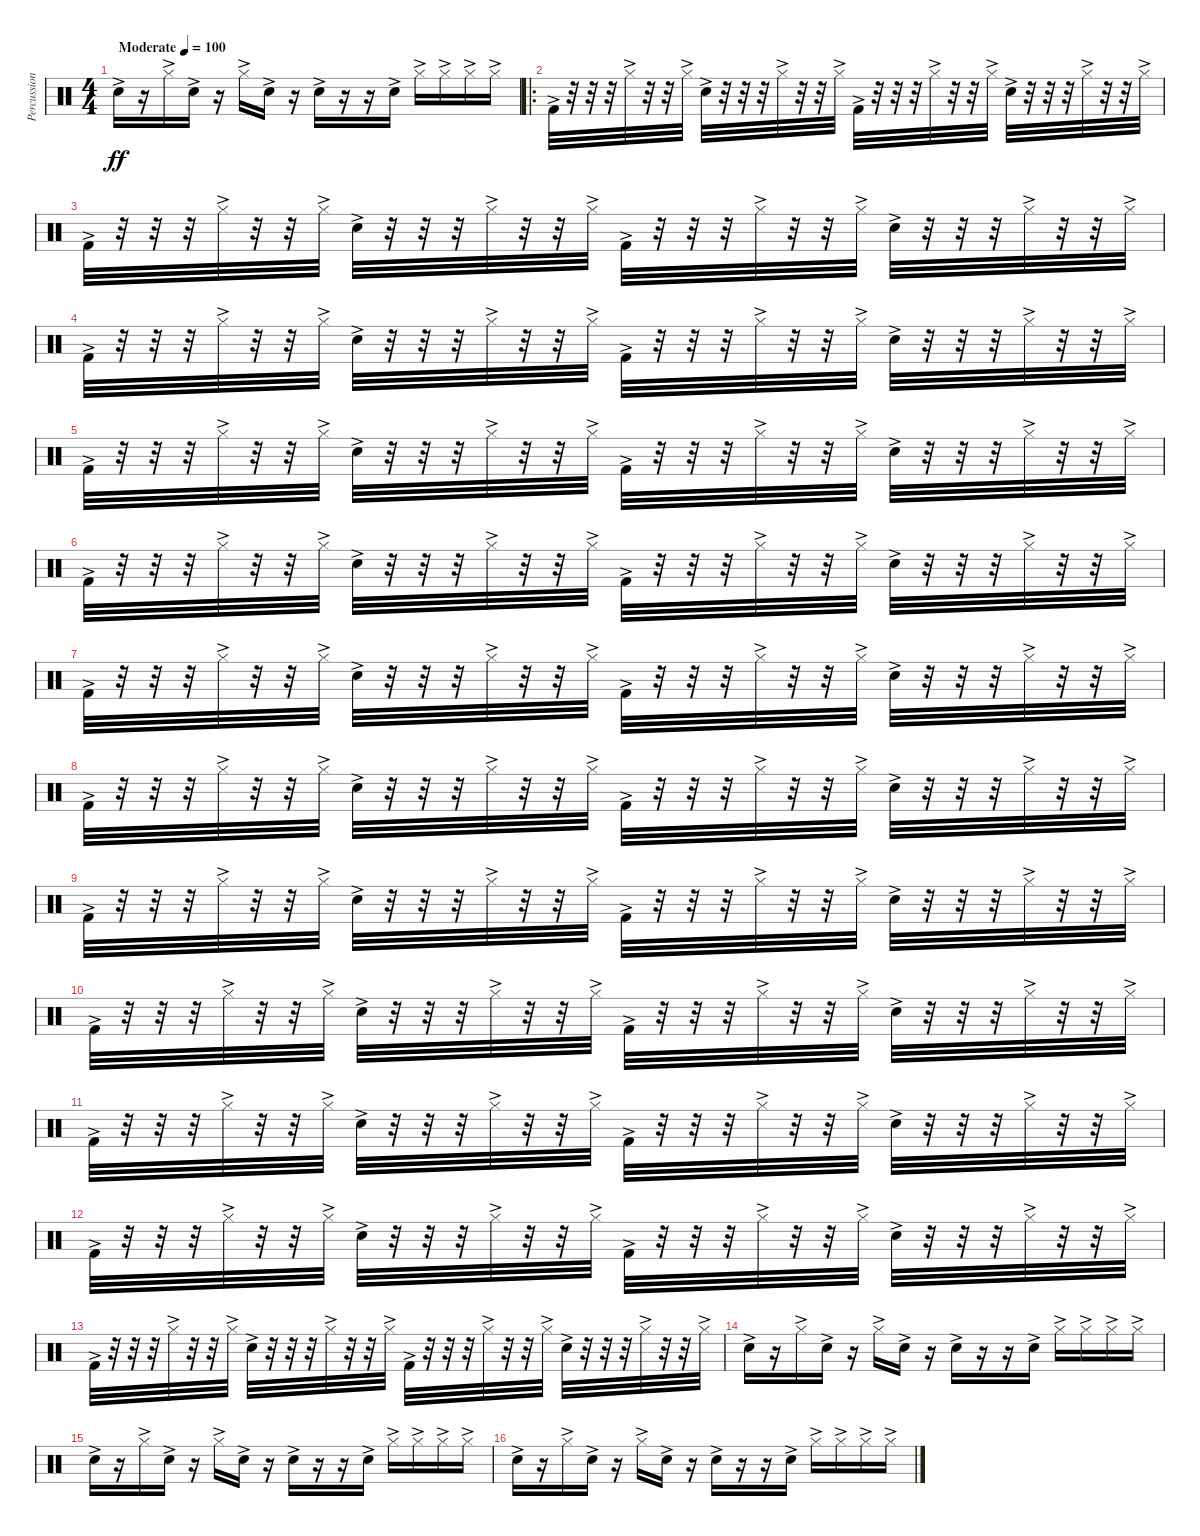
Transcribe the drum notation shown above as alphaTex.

\track ("Percussion" "Percussion") {instrument percussion bank 2}
\staff {score}
\articulation defaults
\ts (4 4)
\tempo (100 "Moderate")
\clef neutral
\ks c "Snare (hit) 2"{ac}.16{dy ff}
r.16 "Hi-Hat (closed)"{ac}.16 "Snare (hit) 2"{ac}.16 r.16 "Hi-Hat (closed)"{ac}.16 "Snare (hit) 2"{ac}.16 r.16 "Snare (hit) 2"{ac}.16 r.16 r.16 "Snare (hit) 2"{ac}.16 "Hi-Hat (closed)"{ac}.16 "Hi-Hat (closed)"{ac}.16 "Hi-Hat (closed)"{ac}.16 "Hi-Hat (closed)"{ac}.16 |
\ro "Kick (hit) 2"{ac}.32
r.32 r.32 r.32 "Hi-Hat (closed)"{ac}.32 r.32 r.32 "Hi-Hat (closed)"{ac}.32 "Snare (hit) 2"{ac}.32 r.32 r.32 r.32 "Hi-Hat (closed)"{ac}.32 r.32 r.32 "Hi-Hat (closed)"{ac}.32 "Kick (hit) 2"{ac}.32 r.32 r.32 r.32 "Hi-Hat (closed)"{ac}.32 r.32 r.32 "Hi-Hat (closed)"{ac}.32 "Snare (hit) 2"{ac}.32 r.32 r.32 r.32 "Hi-Hat (closed)"{ac}.32 r.32 r.32 "Hi-Hat (closed)"{ac}.32 |
"Kick (hit) 2"{ac}.32 r.32 r.32 r.32 "Hi-Hat (closed)"{ac}.32 r.32 r.32 "Hi-Hat (closed)"{ac}.32 "Snare (hit) 2"{ac}.32 r.32 r.32 r.32 "Hi-Hat (closed)"{ac}.32 r.32 r.32 "Hi-Hat (closed)"{ac}.32 "Kick (hit) 2"{ac}.32 r.32 r.32 r.32 "Hi-Hat (closed)"{ac}.32 r.32 r.32 "Hi-Hat (closed)"{ac}.32 "Snare (hit) 2"{ac}.32 r.32 r.32 r.32 "Hi-Hat (closed)"{ac}.32 r.32 r.32 "Hi-Hat (closed)"{ac}.32 |
"Kick (hit) 2"{ac}.32 r.32 r.32 r.32 "Hi-Hat (closed)"{ac}.32 r.32 r.32 "Hi-Hat (closed)"{ac}.32 "Snare (hit) 2"{ac}.32 r.32 r.32 r.32 "Hi-Hat (closed)"{ac}.32 r.32 r.32 "Hi-Hat (closed)"{ac}.32 "Kick (hit) 2"{ac}.32 r.32 r.32 r.32 "Hi-Hat (closed)"{ac}.32 r.32 r.32 "Hi-Hat (closed)"{ac}.32 "Snare (hit) 2"{ac}.32 r.32 r.32 r.32 "Hi-Hat (closed)"{ac}.32 r.32 r.32 "Hi-Hat (closed)"{ac}.32 |
"Kick (hit) 2"{ac}.32 r.32 r.32 r.32 "Hi-Hat (closed)"{ac}.32 r.32 r.32 "Hi-Hat (closed)"{ac}.32 "Snare (hit) 2"{ac}.32 r.32 r.32 r.32 "Hi-Hat (closed)"{ac}.32 r.32 r.32 "Hi-Hat (closed)"{ac}.32 "Kick (hit) 2"{ac}.32 r.32 r.32 r.32 "Hi-Hat (closed)"{ac}.32 r.32 r.32 "Hi-Hat (closed)"{ac}.32 "Snare (hit) 2"{ac}.32 r.32 r.32 r.32 "Hi-Hat (closed)"{ac}.32 r.32 r.32 "Hi-Hat (closed)"{ac}.32 |
"Kick (hit) 2"{ac}.32 r.32 r.32 r.32 "Hi-Hat (closed)"{ac}.32 r.32 r.32 "Hi-Hat (closed)"{ac}.32 "Snare (hit) 2"{ac}.32 r.32 r.32 r.32 "Hi-Hat (closed)"{ac}.32 r.32 r.32 "Hi-Hat (closed)"{ac}.32 "Kick (hit) 2"{ac}.32 r.32 r.32 r.32 "Hi-Hat (closed)"{ac}.32 r.32 r.32 "Hi-Hat (closed)"{ac}.32 "Snare (hit) 2"{ac}.32 r.32 r.32 r.32 "Hi-Hat (closed)"{ac}.32 r.32 r.32 "Hi-Hat (closed)"{ac}.32 |
"Kick (hit) 2"{ac}.32 r.32 r.32 r.32 "Hi-Hat (closed)"{ac}.32 r.32 r.32 "Hi-Hat (closed)"{ac}.32 "Snare (hit) 2"{ac}.32 r.32 r.32 r.32 "Hi-Hat (closed)"{ac}.32 r.32 r.32 "Hi-Hat (closed)"{ac}.32 "Kick (hit) 2"{ac}.32 r.32 r.32 r.32 "Hi-Hat (closed)"{ac}.32 r.32 r.32 "Hi-Hat (closed)"{ac}.32 "Snare (hit) 2"{ac}.32 r.32 r.32 r.32 "Hi-Hat (closed)"{ac}.32 r.32 r.32 "Hi-Hat (closed)"{ac}.32 |
"Kick (hit) 2"{ac}.32 r.32 r.32 r.32 "Hi-Hat (closed)"{ac}.32 r.32 r.32 "Hi-Hat (closed)"{ac}.32 "Snare (hit) 2"{ac}.32 r.32 r.32 r.32 "Hi-Hat (closed)"{ac}.32 r.32 r.32 "Hi-Hat (closed)"{ac}.32 "Kick (hit) 2"{ac}.32 r.32 r.32 r.32 "Hi-Hat (closed)"{ac}.32 r.32 r.32 "Hi-Hat (closed)"{ac}.32 "Snare (hit) 2"{ac}.32 r.32 r.32 r.32 "Hi-Hat (closed)"{ac}.32 r.32 r.32 "Hi-Hat (closed)"{ac}.32 |
"Kick (hit) 2"{ac}.32 r.32 r.32 r.32 "Hi-Hat (closed)"{ac}.32 r.32 r.32 "Hi-Hat (closed)"{ac}.32 "Snare (hit) 2"{ac}.32 r.32 r.32 r.32 "Hi-Hat (closed)"{ac}.32 r.32 r.32 "Hi-Hat (closed)"{ac}.32 "Kick (hit) 2"{ac}.32 r.32 r.32 r.32 "Hi-Hat (closed)"{ac}.32 r.32 r.32 "Hi-Hat (closed)"{ac}.32 "Snare (hit) 2"{ac}.32 r.32 r.32 r.32 "Hi-Hat (closed)"{ac}.32 r.32 r.32 "Hi-Hat (closed)"{ac}.32 |
"Kick (hit) 2"{ac}.32 r.32 r.32 r.32 "Hi-Hat (closed)"{ac}.32 r.32 r.32 "Hi-Hat (closed)"{ac}.32 "Snare (hit) 2"{ac}.32 r.32 r.32 r.32 "Hi-Hat (closed)"{ac}.32 r.32 r.32 "Hi-Hat (closed)"{ac}.32 "Kick (hit) 2"{ac}.32 r.32 r.32 r.32 "Hi-Hat (closed)"{ac}.32 r.32 r.32 "Hi-Hat (closed)"{ac}.32 "Snare (hit) 2"{ac}.32 r.32 r.32 r.32 "Hi-Hat (closed)"{ac}.32 r.32 r.32 "Hi-Hat (closed)"{ac}.32 |
"Kick (hit) 2"{ac}.32 r.32 r.32 r.32 "Hi-Hat (closed)"{ac}.32 r.32 r.32 "Hi-Hat (closed)"{ac}.32 "Snare (hit) 2"{ac}.32 r.32 r.32 r.32 "Hi-Hat (closed)"{ac}.32 r.32 r.32 "Hi-Hat (closed)"{ac}.32 "Kick (hit) 2"{ac}.32 r.32 r.32 r.32 "Hi-Hat (closed)"{ac}.32 r.32 r.32 "Hi-Hat (closed)"{ac}.32 "Snare (hit) 2"{ac}.32 r.32 r.32 r.32 "Hi-Hat (closed)"{ac}.32 r.32 r.32 "Hi-Hat (closed)"{ac}.32 |
"Kick (hit) 2"{ac}.32 r.32 r.32 r.32 "Hi-Hat (closed)"{ac}.32 r.32 r.32 "Hi-Hat (closed)"{ac}.32 "Snare (hit) 2"{ac}.32 r.32 r.32 r.32 "Hi-Hat (closed)"{ac}.32 r.32 r.32 "Hi-Hat (closed)"{ac}.32 "Kick (hit) 2"{ac}.32 r.32 r.32 r.32 "Hi-Hat (closed)"{ac}.32 r.32 r.32 "Hi-Hat (closed)"{ac}.32 "Snare (hit) 2"{ac}.32 r.32 r.32 r.32 "Hi-Hat (closed)"{ac}.32 r.32 r.32 "Hi-Hat (closed)"{ac}.32 |
"Kick (hit) 2"{ac}.32 r.32 r.32 r.32 "Hi-Hat (closed)"{ac}.32 r.32 r.32 "Hi-Hat (closed)"{ac}.32 "Snare (hit) 2"{ac}.32 r.32 r.32 r.32 "Hi-Hat (closed)"{ac}.32 r.32 r.32 "Hi-Hat (closed)"{ac}.32 "Kick (hit) 2"{ac}.32 r.32 r.32 r.32 "Hi-Hat (closed)"{ac}.32 r.32 r.32 "Hi-Hat (closed)"{ac}.32 "Snare (hit) 2"{ac}.32 r.32 r.32 r.32 "Hi-Hat (closed)"{ac}.32 r.32 r.32 "Hi-Hat (closed)"{ac}.32 |
"Snare (hit) 2"{ac}.16 r.16 "Hi-Hat (closed)"{ac}.16 "Snare (hit) 2"{ac}.16 r.16 "Hi-Hat (closed)"{ac}.16 "Snare (hit) 2"{ac}.16 r.16 "Snare (hit) 2"{ac}.16 r.16 r.16 "Snare (hit) 2"{ac}.16 "Hi-Hat (closed)"{ac}.16 "Hi-Hat (closed)"{ac}.16 "Hi-Hat (closed)"{ac}.16 "Hi-Hat (closed)"{ac}.16 |
"Snare (hit) 2"{ac}.16 r.16 "Hi-Hat (closed)"{ac}.16 "Snare (hit) 2"{ac}.16 r.16 "Hi-Hat (closed)"{ac}.16 "Snare (hit) 2"{ac}.16 r.16 "Snare (hit) 2"{ac}.16 r.16 r.16 "Snare (hit) 2"{ac}.16 "Hi-Hat (closed)"{ac}.16 "Hi-Hat (closed)"{ac}.16 "Hi-Hat (closed)"{ac}.16 "Hi-Hat (closed)"{ac}.16 |
"Snare (hit) 2"{ac}.16 r.16 "Hi-Hat (closed)"{ac}.16 "Snare (hit) 2"{ac}.16 r.16 "Hi-Hat (closed)"{ac}.16 "Snare (hit) 2"{ac}.16 r.16 "Snare (hit) 2"{ac}.16 r.16 r.16 "Snare (hit) 2"{ac}.16 "Hi-Hat (closed)"{ac}.16 "Hi-Hat (closed)"{ac}.16 "Hi-Hat (closed)"{ac}.16 "Hi-Hat (closed)"{ac}.16
